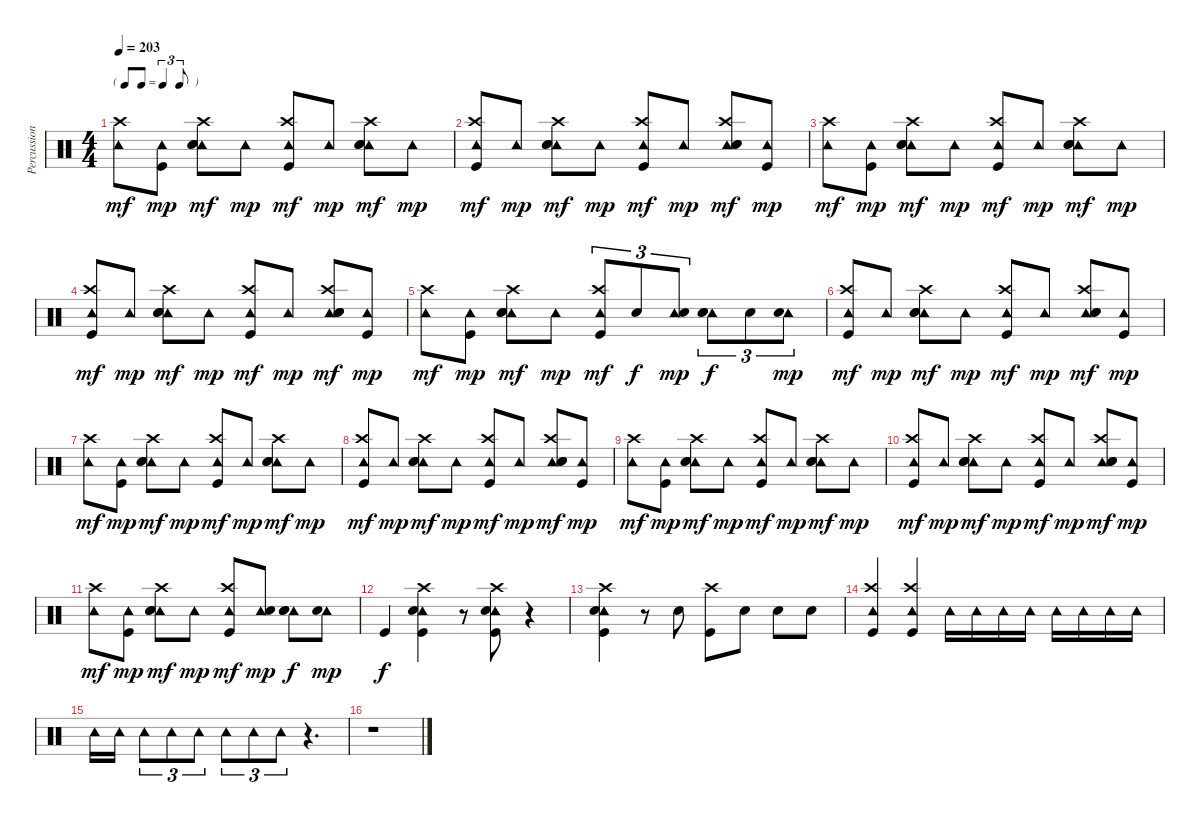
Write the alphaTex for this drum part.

\track ("Percussion" "Percussion") {instrument percussion}
\staff {score}
\articulation defaults
\ts (4 4)
\tf triplet8th
\tempo 203
\clef neutral
\ks c
("Tambourine (hit)" "Crash high (hit)").8{dy mf} ("Tambourine (hit)" "Kick (hit)").8{dy mp} ("Tambourine (hit)" "Crash high (hit)" "Hand Clap (hit)" "Snare (hit) 2").8{dy mf} "Tambourine (hit)".8{dy mp} ("Tambourine (hit)" "Crash high (hit)" "Kick (hit)").8{dy mf} "Tambourine (hit)".8{dy mp} ("Tambourine (hit)" "Crash high (hit)" "Hand Clap (hit)" "Snare (hit) 2").8{dy mf} "Tambourine (hit)".8{dy mp} |
("Tambourine (hit)" "Crash high (hit)" "Kick (hit)").8{dy mf} "Tambourine (hit)".8{dy mp} ("Tambourine (hit)" "Crash high (hit)" "Hand Clap (hit)" "Snare (hit) 2").8{dy mf} "Tambourine (hit)".8{dy mp} ("Tambourine (hit)" "Crash high (hit)" "Kick (hit)").8{dy mf} "Tambourine (hit)".8{dy mp} ("Tambourine (hit)" "Crash high (hit)" "Hand Clap (hit)" "Snare (hit) 2").8{dy mf} ("Tambourine (hit)" "Kick (hit)").8{dy mp} |
("Tambourine (hit)" "Crash high (hit)").8{dy mf} ("Tambourine (hit)" "Kick (hit)").8{dy mp} ("Tambourine (hit)" "Crash high (hit)" "Hand Clap (hit)" "Snare (hit) 2").8{dy mf} "Tambourine (hit)".8{dy mp} ("Tambourine (hit)" "Crash high (hit)" "Kick (hit)").8{dy mf} "Tambourine (hit)".8{dy mp} ("Tambourine (hit)" "Crash high (hit)" "Hand Clap (hit)" "Snare (hit) 2").8{dy mf} "Tambourine (hit)".8{dy mp} |
("Tambourine (hit)" "Crash high (hit)" "Kick (hit)").8{dy mf} "Tambourine (hit)".8{dy mp} ("Tambourine (hit)" "Crash high (hit)" "Hand Clap (hit)" "Snare (hit) 2").8{dy mf} "Tambourine (hit)".8{dy mp} ("Tambourine (hit)" "Crash high (hit)" "Kick (hit)").8{dy mf} "Tambourine (hit)".8{dy mp} ("Tambourine (hit)" "Crash high (hit)" "Hand Clap (hit)" "Snare (hit) 2").8{dy mf} ("Tambourine (hit)" "Kick (hit)").8{dy mp} |
("Tambourine (hit)" "Crash high (hit)").8{dy mf} ("Tambourine (hit)" "Kick (hit)").8{dy mp} ("Tambourine (hit)" "Crash high (hit)" "Hand Clap (hit)" "Snare (hit) 2").8{dy mf} "Tambourine (hit)".8{dy mp} ("Tambourine (hit)" "Crash high (hit)" "Kick (hit)").8{tu (3 2) dy mf} "Snare (hit) 2".8{tu (3 2) dy f} ("Tambourine (hit)" "Snare (hit) 2").8{tu (3 2) dy mp} ("Tambourine (hit)" "Hand Clap (hit)" "Snare (hit) 2").8{tu (3 2) dy f} "Snare (hit) 2".8{tu (3 2)} ("Tambourine (hit)" "Snare (hit) 2").8{tu (3 2) dy mp} |
("Tambourine (hit)" "Crash high (hit)" "Kick (hit)").8{dy mf} "Tambourine (hit)".8{dy mp} ("Tambourine (hit)" "Crash high (hit)" "Hand Clap (hit)" "Snare (hit) 2").8{dy mf} "Tambourine (hit)".8{dy mp} ("Tambourine (hit)" "Crash high (hit)" "Kick (hit)").8{dy mf} "Tambourine (hit)".8{dy mp} ("Tambourine (hit)" "Crash high (hit)" "Hand Clap (hit)" "Snare (hit) 2").8{dy mf} ("Tambourine (hit)" "Kick (hit)").8{dy mp} |
("Tambourine (hit)" "Crash high (hit)").8{dy mf} ("Tambourine (hit)" "Kick (hit)").8{dy mp} ("Tambourine (hit)" "Crash high (hit)" "Hand Clap (hit)" "Snare (hit) 2").8{dy mf} "Tambourine (hit)".8{dy mp} ("Tambourine (hit)" "Crash high (hit)" "Kick (hit)").8{dy mf} "Tambourine (hit)".8{dy mp} ("Tambourine (hit)" "Crash high (hit)" "Hand Clap (hit)" "Snare (hit) 2").8{dy mf} "Tambourine (hit)".8{dy mp} |
("Tambourine (hit)" "Crash high (hit)" "Kick (hit)").8{dy mf} "Tambourine (hit)".8{dy mp} ("Tambourine (hit)" "Crash high (hit)" "Hand Clap (hit)" "Snare (hit) 2").8{dy mf} "Tambourine (hit)".8{dy mp} ("Tambourine (hit)" "Crash high (hit)" "Kick (hit)").8{dy mf} "Tambourine (hit)".8{dy mp} ("Tambourine (hit)" "Crash high (hit)" "Hand Clap (hit)" "Snare (hit) 2").8{dy mf} ("Tambourine (hit)" "Kick (hit)").8{dy mp} |
("Tambourine (hit)" "Crash high (hit)").8{dy mf} ("Tambourine (hit)" "Kick (hit)").8{dy mp} ("Tambourine (hit)" "Crash high (hit)" "Hand Clap (hit)" "Snare (hit) 2").8{dy mf} "Tambourine (hit)".8{dy mp} ("Tambourine (hit)" "Crash high (hit)" "Kick (hit)").8{dy mf} "Tambourine (hit)".8{dy mp} ("Tambourine (hit)" "Crash high (hit)" "Hand Clap (hit)" "Snare (hit) 2").8{dy mf} "Tambourine (hit)".8{dy mp} |
("Tambourine (hit)" "Crash high (hit)" "Kick (hit)").8{dy mf} "Tambourine (hit)".8{dy mp} ("Tambourine (hit)" "Crash high (hit)" "Hand Clap (hit)" "Snare (hit) 2").8{dy mf} "Tambourine (hit)".8{dy mp} ("Tambourine (hit)" "Crash high (hit)" "Kick (hit)").8{dy mf} "Tambourine (hit)".8{dy mp} ("Tambourine (hit)" "Crash high (hit)" "Hand Clap (hit)" "Snare (hit) 2").8{dy mf} ("Tambourine (hit)" "Kick (hit)").8{dy mp} |
("Tambourine (hit)" "Crash high (hit)").8{dy mf} ("Tambourine (hit)" "Kick (hit)").8{dy mp} ("Tambourine (hit)" "Crash high (hit)" "Hand Clap (hit)" "Snare (hit) 2").8{dy mf} "Tambourine (hit)".8{dy mp} ("Tambourine (hit)" "Crash high (hit)" "Kick (hit)").8{dy mf} ("Tambourine (hit)" "Snare (hit) 2").8{dy mp} ("Tambourine (hit)" "Hand Clap (hit)" "Snare (hit) 2").8{dy f} ("Tambourine (hit)" "Snare (hit) 2").8{dy mp} |
"Kick (hit)".4{dy f} ("Tambourine (hit)" "Crash high (hit)" "Snare (hit) 2" "Kick (hit)").4 r.8 ("Tambourine (hit)" "Crash high (hit)" "Snare (hit) 2" "Kick (hit)").8 r.4 |
("Tambourine (hit)" "Crash high (hit)" "Snare (hit) 2" "Kick (hit)").4 r.8 "Snare (hit) 2".8 ("Crash high (hit)" "Kick (hit)").8 "Snare (hit) 2".8 "Snare (hit) 2".8 "Snare (hit) 2".8 |
("Tambourine (hit)" "Crash high (hit)" "Kick (hit)").4 ("Tambourine (hit)" "Crash high (hit)" "Kick (hit)").4 "Tambourine (hit)".16 "Tambourine (hit)".16 "Tambourine (hit)".16 "Tambourine (hit)".16 "Tambourine (hit)".16 "Tambourine (hit)".16 "Tambourine (hit)".16 "Tambourine (hit)".16 |
"Tambourine (hit)".16 "Tambourine (hit)".16 "Tambourine (hit)".8{tu (3 2)} "Tambourine (hit)".8{tu (3 2)} "Tambourine (hit)".8{tu (3 2)} "Tambourine (hit)".8{tu (3 2)} "Tambourine (hit)".8{tu (3 2)} "Tambourine (hit)".8{tu (3 2)} r.4{d} |
r.1
